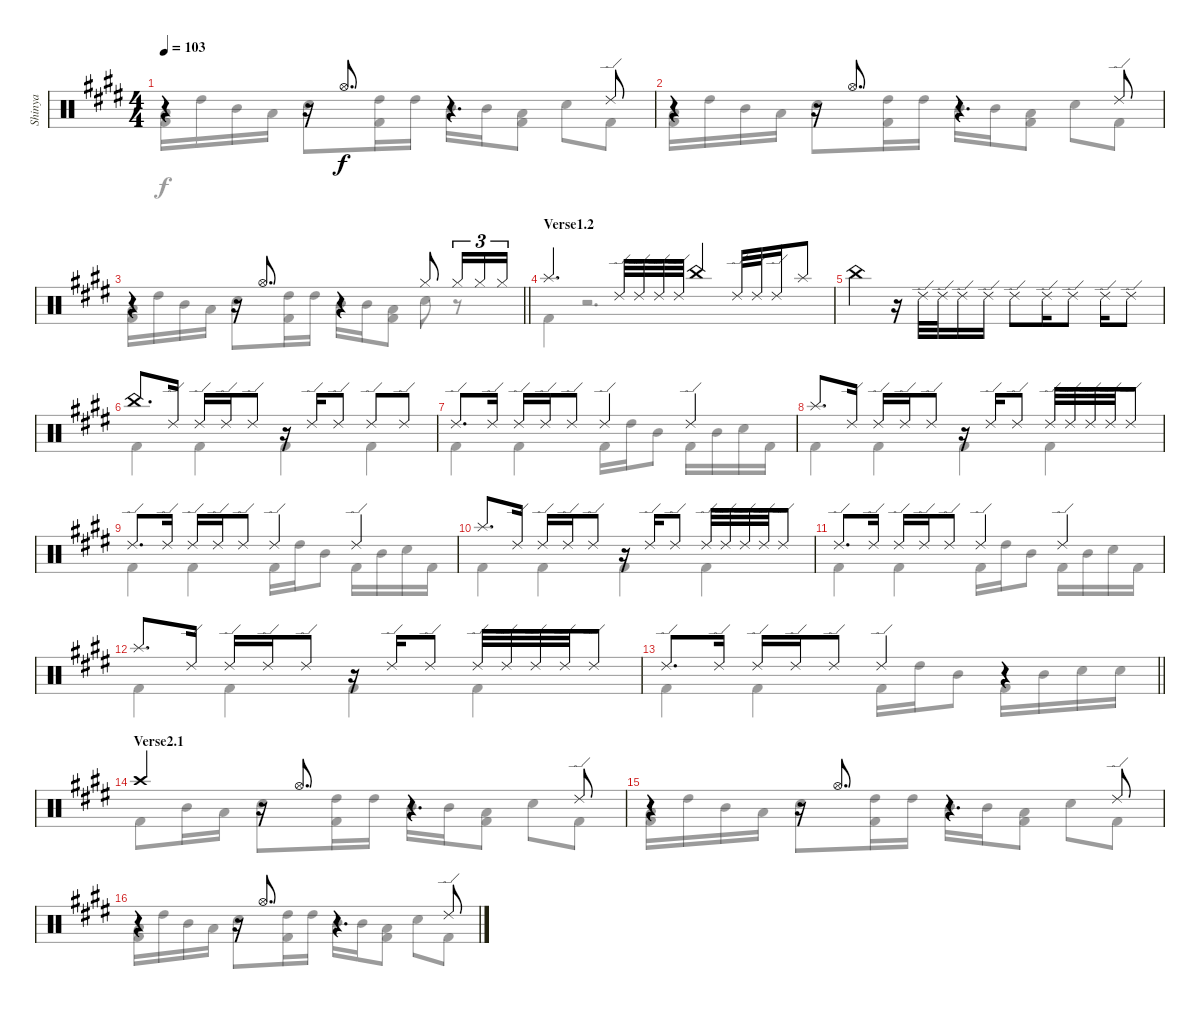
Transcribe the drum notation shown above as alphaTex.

\track ("Shinya" "Shinya") {instrument percussion}
\staff {score}
\articulation defaults
\voice
\ts (4 4)
\tempo 103
\clef neutral
\ks c#minor
r.4{dy f} r.16 "Hi-Hat (open)".8{d} r.4{d} "Ride (edge) 2".8 |
r.4 r.16 "Hi-Hat (open)".8{d} r.4{d} "Ride (edge) 2".8 |
\barLineRight lightlight
r.4 r.16 "Hi-Hat (open)".8{d} r.4 "Hi-Hat (closed)".8 "Hi-Hat (closed)".16{tu (3 2)} "Hi-Hat (closed)".16{tu (3 2)} "Hi-Hat (closed)".16{tu (3 2)} |
\section ("" "Verse1.2")
"Splash (hit)".4{d} "Ride (edge) 2".32 "Ride (edge) 2".32 "Ride (edge) 2".32 "Ride (edge) 2".32 "China (hit)".4 "Ride (edge) 2".32 "Ride (edge) 2".32 "Ride (edge) 2".16 "Splash (hit)".8 |
"China (hit)".4 r.16 "Ride (edge) 2".32 "Ride (edge) 2".32 "Ride (edge) 2".16 "Ride (edge) 2".16 "Ride (edge) 2".8 "Ride (edge) 2".16 "Ride (edge) 2".8 "Ride (edge) 2".16 "Ride (edge) 2".8 |
"China (hit)".8{d} "Ride (edge) 2".16 "Ride (edge) 2".16 "Ride (edge) 2".16 "Ride (edge) 2".8 r.16 "Ride (edge) 2".16 "Ride (edge) 2".8 "Ride (edge) 2".8 "Ride (edge) 2".8 |
"Ride (edge) 2".8{d} "Ride (edge) 2".16 "Ride (edge) 2".16 "Ride (edge) 2".16 "Ride (edge) 2".8 "Ride (edge) 2".4 "Ride (edge) 2".4 |
"Splash (hit)".8{d} "Ride (edge) 2".16 "Ride (edge) 2".16 "Ride (edge) 2".16 "Ride (edge) 2".8 r.16 "Ride (edge) 2".16 "Ride (edge) 2".8 "Ride (edge) 2".32 "Ride (edge) 2".32 "Ride (edge) 2".32 "Ride (edge) 2".32 "Ride (edge) 2".8 |
"Ride (edge) 2".8{d} "Ride (edge) 2".16 "Ride (edge) 2".16 "Ride (edge) 2".16 "Ride (edge) 2".8 "Ride (edge) 2".4 "Ride (edge) 2".4 |
"Splash (hit)".8{d} "Ride (edge) 2".16 "Ride (edge) 2".16 "Ride (edge) 2".16 "Ride (edge) 2".8 r.16 "Ride (edge) 2".16 "Ride (edge) 2".8 "Ride (edge) 2".32 "Ride (edge) 2".32 "Ride (edge) 2".32 "Ride (edge) 2".32 "Ride (edge) 2".8 |
"Ride (edge) 2".8{d} "Ride (edge) 2".16 "Ride (edge) 2".16 "Ride (edge) 2".16 "Ride (edge) 2".8 "Ride (edge) 2".4 "Ride (edge) 2".4 |
"Splash (hit)".8{d} "Ride (edge) 2".16 "Ride (edge) 2".16 "Ride (edge) 2".16 "Ride (edge) 2".8 r.16 "Ride (edge) 2".16 "Ride (edge) 2".8 "Ride (edge) 2".32 "Ride (edge) 2".32 "Ride (edge) 2".32 "Ride (edge) 2".32 "Ride (edge) 2".8 |
\barLineRight lightlight "Ride (edge) 2".8{d} "Ride (edge) 2".16 "Ride (edge) 2".16 "Ride (edge) 2".16 "Ride (edge) 2".8 "Ride (edge) 2".4
r.4 |
\section ("" "Verse2.1")
"Crash high (hit)".4 r.16 "Hi-Hat (open)".8{d} r.4{d} "Ride (edge) 2".8 |
r.4 r.16 "Hi-Hat (open)".8{d} r.4{d} "Ride (edge) 2".8 |
r.4 r.16 "Hi-Hat (open)".8{d} r.4{d} "Ride (edge) 2".8
\voice
\clef neutral
\ottava regular
\simile none
\ks c#minor
("Low Tom (hit)" "Kick (hit) 2").16{dy f} "High Tom (hit)".16 "Mid Tom (hit)".16 "Low Tom (hit)".16 "Snare (hit) 2".8 ("High Tom (hit)" "Kick (hit) 2").16 "High Tom (hit)".16 "Mid Tom (hit)".16 "Mid Tom (hit)".16 ("Low Tom (hit)" "Kick (hit) 2").8 "Snare (hit) 2".8 "Kick (hit) 2".8 |
("Low Tom (hit)" "Kick (hit) 2").16 "High Tom (hit)".16 "Mid Tom (hit)".16 "Low Tom (hit)".16 "Snare (hit) 2".8 ("High Tom (hit)" "Kick (hit) 2").16 "High Tom (hit)".16 "Mid Tom (hit)".16 "Mid Tom (hit)".16 ("Low Tom (hit)" "Kick (hit) 2").8 "Snare (hit) 2".8 "Kick (hit) 2".8 |
\barLineRight lightlight
("Low Tom (hit)" "Kick (hit) 2").16 "High Tom (hit)".16 "Mid Tom (hit)".16 "Low Tom (hit)".16 "Snare (hit) 2".8 ("High Tom (hit)" "Kick (hit) 2").16 "High Tom (hit)".16 "Mid Tom (hit)".16 "Mid Tom (hit)".16 ("Low Tom (hit)" "Kick (hit) 2").8 "Snare (hit) 2".8 r.8 |
"Kick (hit) 2".4 r.2{d} |
|
"Kick (hit) 2".4 "Kick (hit) 2".4 "Kick (hit) 2".4 "Kick (hit) 2".4 |
"Kick (hit) 2".4 "Kick (hit) 2".4 "Kick (hit) 2".16 "High Tom (hit)".16 "Mid Tom (hit)".8 "Kick (hit) 2".16 "Mid Tom (hit)".16 "Snare (hit) 2".16 "Kick (hit) 2".16 |
"Kick (hit) 2".4 "Kick (hit) 2".4 "Kick (hit) 2".4 "Kick (hit) 2".4 |
"Kick (hit) 2".4 "Kick (hit) 2".4 "Kick (hit) 2".16 "High Tom (hit)".16 "Mid Tom (hit)".8 "Kick (hit) 2".16 "Mid Tom (hit)".16 "Snare (hit) 2".16 "Kick (hit) 2".16 |
"Kick (hit) 2".4 "Kick (hit) 2".4 "Kick (hit) 2".4 "Kick (hit) 2".4 |
"Kick (hit) 2".4 "Kick (hit) 2".4 "Kick (hit) 2".16 "High Tom (hit)".16 "Mid Tom (hit)".8 "Kick (hit) 2".16 "Mid Tom (hit)".16 "Snare (hit) 2".16 "Kick (hit) 2".16 |
"Kick (hit) 2".4 "Kick (hit) 2".4 "Kick (hit) 2".4 "Kick (hit) 2".4 |
\barLineRight lightlight "Kick (hit) 2".4 "Kick (hit) 2".4 "Kick (hit) 2".16 "High Tom (hit)".16 "Mid Tom (hit)".8 "Kick (hit) 2".16 "Mid Tom (hit)".16 "Snare (hit) 2".16 "Snare (hit) 2".16
|
"Kick (hit) 2".8 "Mid Tom (hit)".16 "Low Tom (hit)".16 "Snare (hit) 2".8 ("High Tom (hit)" "Kick (hit) 2").16 "High Tom (hit)".16 "Mid Tom (hit)".16 "Mid Tom (hit)".16 ("Low Tom (hit)" "Kick (hit) 2").8 "Snare (hit) 2".8 "Kick (hit) 2".8 |
("Low Tom (hit)" "Kick (hit) 2").16 "High Tom (hit)".16 "Mid Tom (hit)".16 "Low Tom (hit)".16 "Snare (hit) 2".8 ("High Tom (hit)" "Kick (hit) 2").16 "High Tom (hit)".16 "Mid Tom (hit)".16 "Mid Tom (hit)".16 ("Low Tom (hit)" "Kick (hit) 2").8 "Snare (hit) 2".8 "Kick (hit) 2".8 |
("Low Tom (hit)" "Kick (hit) 2").16 "High Tom (hit)".16 "Mid Tom (hit)".16 "Low Tom (hit)".16 "Snare (hit) 2".8 ("High Tom (hit)" "Kick (hit) 2").16 "High Tom (hit)".16 "Mid Tom (hit)".16 "Mid Tom (hit)".16 ("Low Tom (hit)" "Kick (hit) 2").8 "Snare (hit) 2".8 "Kick (hit) 2".8
